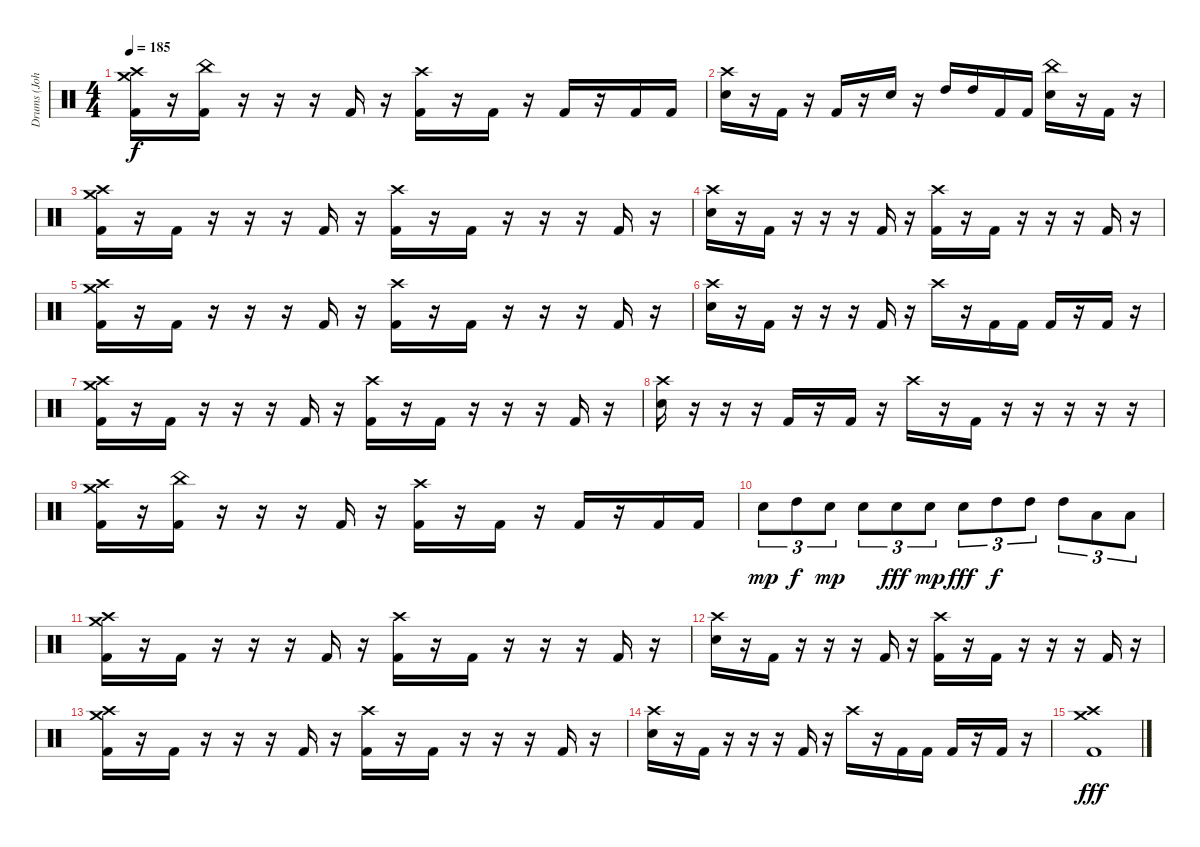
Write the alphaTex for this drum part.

\track ("Drums (Johno)" "Drums (Joh") {instrument percussion}
\staff {score}
\articulation defaults
\ts (4 4)
\tempo 185
\clef neutral
\ks c
("Crash medium (hit)" "Crash high (hit)" "Kick (hit) 2").16{dy f} r.16 ("China (hit)" "Kick (hit) 2").16 r.16 r.16 r.16 "Kick (hit) 2".16 r.16 ("Crash high (hit)" "Kick (hit) 2").16 r.16 "Kick (hit) 2".16 r.16 "Kick (hit) 2".16 r.16 "Kick (hit) 2".16 "Kick (hit) 2".16 |
("Crash high (hit)" "Electric Snare (hit)").16 r.16 "Kick (hit) 2".16 r.16 "Kick (hit) 2".16 r.16 "Electric Snare (hit)".16 r.16 "High Tom (hit)".16 "High Tom (hit)".16 "Kick (hit) 2".16 "Kick (hit) 2".16 ("China (hit)" "Electric Snare (hit)").16 r.16 "Kick (hit) 2".16 r.16 |
("Crash medium (hit)" "Crash high (hit)" "Kick (hit) 2").16 r.16 "Kick (hit) 2".16 r.16 r.16 r.16 "Kick (hit) 2".16 r.16 ("Crash high (hit)" "Kick (hit) 2").16 r.16 "Kick (hit) 2".16 r.16 r.16 r.16 "Kick (hit) 2".16 r.16 |
("Crash high (hit)" "Electric Snare (hit)").16 r.16 "Kick (hit) 2".16 r.16 r.16 r.16 "Kick (hit) 2".16 r.16 ("Crash high (hit)" "Kick (hit) 2").16 r.16 "Kick (hit) 2".16 r.16 r.16 r.16 "Kick (hit) 2".16 r.16 |
("Crash medium (hit)" "Crash high (hit)" "Kick (hit) 2").16 r.16 "Kick (hit) 2".16 r.16 r.16 r.16 "Kick (hit) 2".16 r.16 ("Crash high (hit)" "Kick (hit) 2").16 r.16 "Kick (hit) 2".16 r.16 r.16 r.16 "Kick (hit) 2".16 r.16 |
("Crash high (hit)" "Electric Snare (hit)").16 r.16 "Kick (hit) 2".16 r.16 r.16 r.16 "Kick (hit) 2".16 r.16 "Crash high (hit)".16 r.16 "Kick (hit) 2".16 "Kick (hit) 2".16 "Kick (hit) 2".16 r.16 "Kick (hit) 2".16 r.16 |
("Crash medium (hit)" "Crash high (hit)" "Kick (hit) 2").16 r.16 "Kick (hit) 2".16 r.16 r.16 r.16 "Kick (hit) 2".16 r.16 ("Crash high (hit)" "Kick (hit) 2").16 r.16 "Kick (hit) 2".16 r.16 r.16 r.16 "Kick (hit) 2".16 r.16 |
("Crash high (hit)" "Electric Snare (hit)").16 r.16 r.16 r.16 "Kick (hit) 2".16 r.16 "Kick (hit) 2".16 r.16 "Crash high (hit)".16 r.16 "Kick (hit) 2".16 r.16 r.16 r.16 r.16 r.16 |
("Crash medium (hit)" "Crash high (hit)" "Kick (hit) 2").16 r.16 ("China (hit)" "Kick (hit) 2").16 r.16 r.16 r.16 "Kick (hit) 2".16 r.16 ("Crash high (hit)" "Kick (hit) 2").16 r.16 "Kick (hit) 2".16 r.16 "Kick (hit) 2".16 r.16 "Kick (hit) 2".16 "Kick (hit) 2".16 |
"Electric Snare (hit)".8{tu (3 2) dy mp} "High Tom (hit)".8{tu (3 2) dy f} "Electric Snare (hit)".8{tu (3 2) dy mp} "Electric Snare (hit)".8{tu (3 2)} "Electric Snare (hit)".8{tu (3 2) dy fff} "Electric Snare (hit)".8{tu (3 2) dy mp} "Electric Snare (hit)".8{tu (3 2) dy fff} "High Tom (hit)".8{tu (3 2) dy f} "High Tom (hit)".8{tu (3 2)} "High Tom (hit)".8{tu (3 2)} "Low Floor Tom (hit)".8{tu (3 2)} "Low Floor Tom (hit)".8{tu (3 2)} |
("Crash medium (hit)" "Crash high (hit)" "Kick (hit) 2").16 r.16 "Kick (hit) 2".16 r.16 r.16 r.16 "Kick (hit) 2".16 r.16 ("Crash high (hit)" "Kick (hit) 2").16 r.16 "Kick (hit) 2".16 r.16 r.16 r.16 "Kick (hit) 2".16 r.16 |
("Crash high (hit)" "Electric Snare (hit)").16 r.16 "Kick (hit) 2".16 r.16 r.16 r.16 "Kick (hit) 2".16 r.16 ("Crash high (hit)" "Kick (hit) 2").16 r.16 "Kick (hit) 2".16 r.16 r.16 r.16 "Kick (hit) 2".16 r.16 |
("Crash medium (hit)" "Crash high (hit)" "Kick (hit) 2").16 r.16 "Kick (hit) 2".16 r.16 r.16 r.16 "Kick (hit) 2".16 r.16 ("Crash high (hit)" "Kick (hit) 2").16 r.16 "Kick (hit) 2".16 r.16 r.16 r.16 "Kick (hit) 2".16 r.16 |
("Crash high (hit)" "Electric Snare (hit)").16 r.16 "Kick (hit) 2".16 r.16 r.16 r.16 "Kick (hit) 2".16 r.16 "Crash high (hit)".16 r.16 "Kick (hit) 2".16 "Kick (hit) 2".16 "Kick (hit) 2".16 r.16 "Kick (hit) 2".16 r.16 |
("Crash medium (hit)" "Crash high (hit)" "Kick (hit) 2").1{dy fff}
